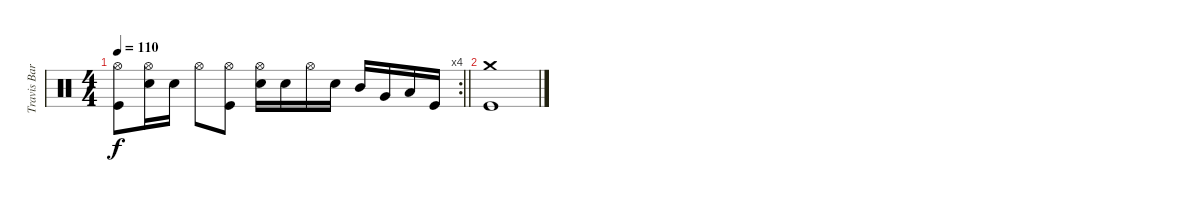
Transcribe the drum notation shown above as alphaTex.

\track ("Travis Barker (Drums)" "Travis Bar") {instrument percussion bank 10}
\staff {score}
\articulation defaults
\rc 4
\ts (4 4)
\tempo 110
\clef neutral
\barLineRight lightlight
\ks c
("Hi-Hat (open)" "Kick (hit)").8{dy f} ("Hi-Hat (open)" "Snare (hit) 2").16 "Snare (hit) 2".16 "Hi-Hat (open)".8 ("Hi-Hat (open)" "Kick (hit)").8 ("Hi-Hat (open)" "Snare (hit) 2").16 "Snare (hit) 2".16 "Hi-Hat (open)".16 "Snare (hit) 2".16 "Mid Tom (hit)".16 "Very Low Tom (hit)".16 "Low Floor Tom (hit)".16 "Kick (hit)".16 |
("Crash medium (hit)" "Kick (hit)").1
